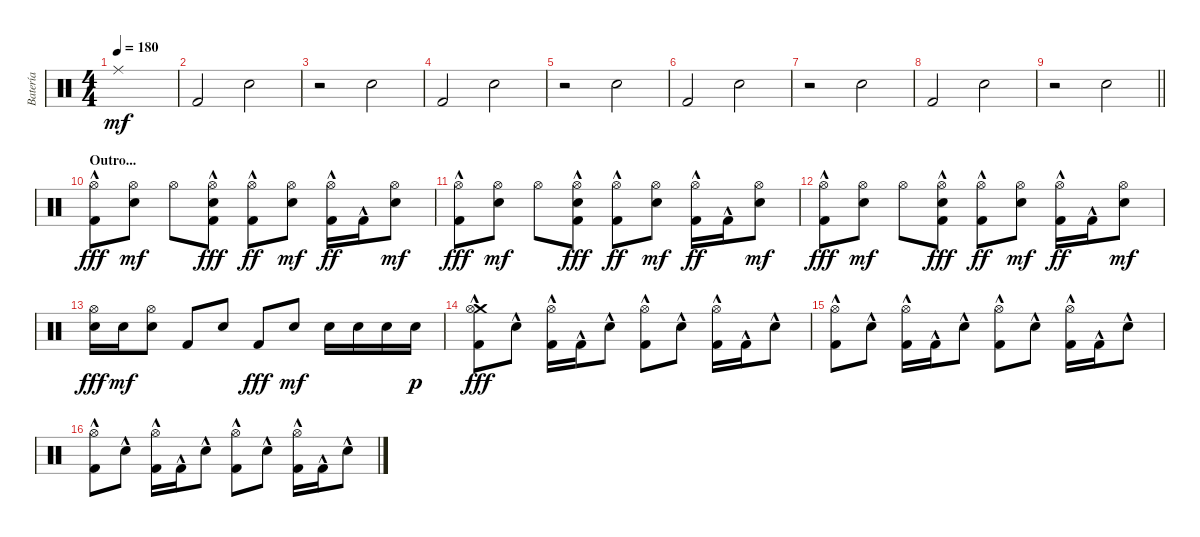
\track ("Batería" "Batería") {instrument percussion}
\staff {score}
\articulation defaults
\ts (4 4)
\tempo 180
\clef neutral
\ks c "Ride (middle)".1{dy mf}
|
"Kick (hit) 2".2 "Snare (hit) 2".2 |
r.2 "Snare (hit) 2".2 |
"Kick (hit) 2".2 "Snare (hit) 2".2 |
r.2 "Snare (hit) 2".2 |
"Kick (hit) 2".2 "Snare (hit) 2".2 |
r.2 "Snare (hit) 2".2 |
"Kick (hit) 2".2 "Snare (hit) 2".2 |
\barLineRight lightlight
r.2 "Snare (hit) 2".2 |
\section ("" "Outro...")
("Hi-Hat (open)" "Kick (hit) 2"{hac}).8{dy fff} ("Snare (hit) 2" "Hi-Hat (open)").8{dy mf} "Hi-Hat (open)".8 ("Snare (hit) 2" "Hi-Hat (open)" "Kick (hit) 2"{hac}).8{dy fff} ("Hi-Hat (open)" "Kick (hit) 2"{hac}).8{dy ff} ("Snare (hit) 2" "Hi-Hat (open)").8{dy mf} ("Hi-Hat (open)" "Kick (hit) 2"{hac}).16{dy ff} "Kick (hit) 2"{hac}.16 ("Snare (hit) 2" "Hi-Hat (open)").8{dy mf} |
("Hi-Hat (open)" "Kick (hit) 2"{hac}).8{dy fff} ("Snare (hit) 2" "Hi-Hat (open)").8{dy mf} "Hi-Hat (open)".8 ("Snare (hit) 2" "Hi-Hat (open)" "Kick (hit) 2"{hac}).8{dy fff} ("Hi-Hat (open)" "Kick (hit) 2"{hac}).8{dy ff} ("Snare (hit) 2" "Hi-Hat (open)").8{dy mf} ("Hi-Hat (open)" "Kick (hit) 2"{hac}).16{dy ff} "Kick (hit) 2"{hac}.16 ("Snare (hit) 2" "Hi-Hat (open)").8{dy mf} |
("Hi-Hat (open)" "Kick (hit) 2"{hac}).8{dy fff} ("Snare (hit) 2" "Hi-Hat (open)").8{dy mf} "Hi-Hat (open)".8 ("Snare (hit) 2" "Hi-Hat (open)" "Kick (hit) 2"{hac}).8{dy fff} ("Hi-Hat (open)" "Kick (hit) 2"{hac}).8{dy ff} ("Snare (hit) 2" "Hi-Hat (open)").8{dy mf} ("Hi-Hat (open)" "Kick (hit) 2"{hac}).16{dy ff} "Kick (hit) 2"{hac}.16 ("Snare (hit) 2" "Hi-Hat (open)").8{dy mf} |
("Snare (hit) 2" "Hi-Hat (open)").16{dy fff} "Snare (hit) 2".16{dy mf} ("Snare (hit) 2" "Hi-Hat (open)").8 "Kick (hit) 2".8 "Snare (hit) 2".8 "Kick (hit) 2".8{dy fff} "Snare (hit) 2".8{dy mf} "Snare (hit) 2".16 "Snare (hit) 2".16 "Snare (hit) 2".16 "Snare (hit) 2".16{dy p} |
("Crash medium (hit)" "Hi-Hat (open)" "Kick (hit) 2"{hac}).8{dy fff} "Snare (hit) 2"{hac}.8 ("Hi-Hat (open)" "Kick (hit) 2"{hac}).16 "Kick (hit) 2"{hac}.16 "Snare (hit) 2"{hac}.8 ("Hi-Hat (open)" "Kick (hit) 2"{hac}).8 "Snare (hit) 2"{hac}.8 ("Hi-Hat (open)" "Kick (hit) 2"{hac}).16 "Kick (hit) 2"{hac}.16 "Snare (hit) 2"{hac}.8 |
("Hi-Hat (open)" "Kick (hit) 2"{hac}).8 "Snare (hit) 2"{hac}.8 ("Hi-Hat (open)" "Kick (hit) 2"{hac}).16 "Kick (hit) 2"{hac}.16 "Snare (hit) 2"{hac}.8 ("Hi-Hat (open)" "Kick (hit) 2"{hac}).8 "Snare (hit) 2"{hac}.8 ("Hi-Hat (open)" "Kick (hit) 2"{hac}).16 "Kick (hit) 2"{hac}.16 "Snare (hit) 2"{hac}.8 |
("Hi-Hat (open)" "Kick (hit) 2"{hac}).8 "Snare (hit) 2"{hac}.8 ("Hi-Hat (open)" "Kick (hit) 2"{hac}).16 "Kick (hit) 2"{hac}.16 "Snare (hit) 2"{hac}.8 ("Hi-Hat (open)" "Kick (hit) 2"{hac}).8 "Snare (hit) 2"{hac}.8 ("Hi-Hat (open)" "Kick (hit) 2"{hac}).16 "Kick (hit) 2"{hac}.16 "Snare (hit) 2"{hac}.8
